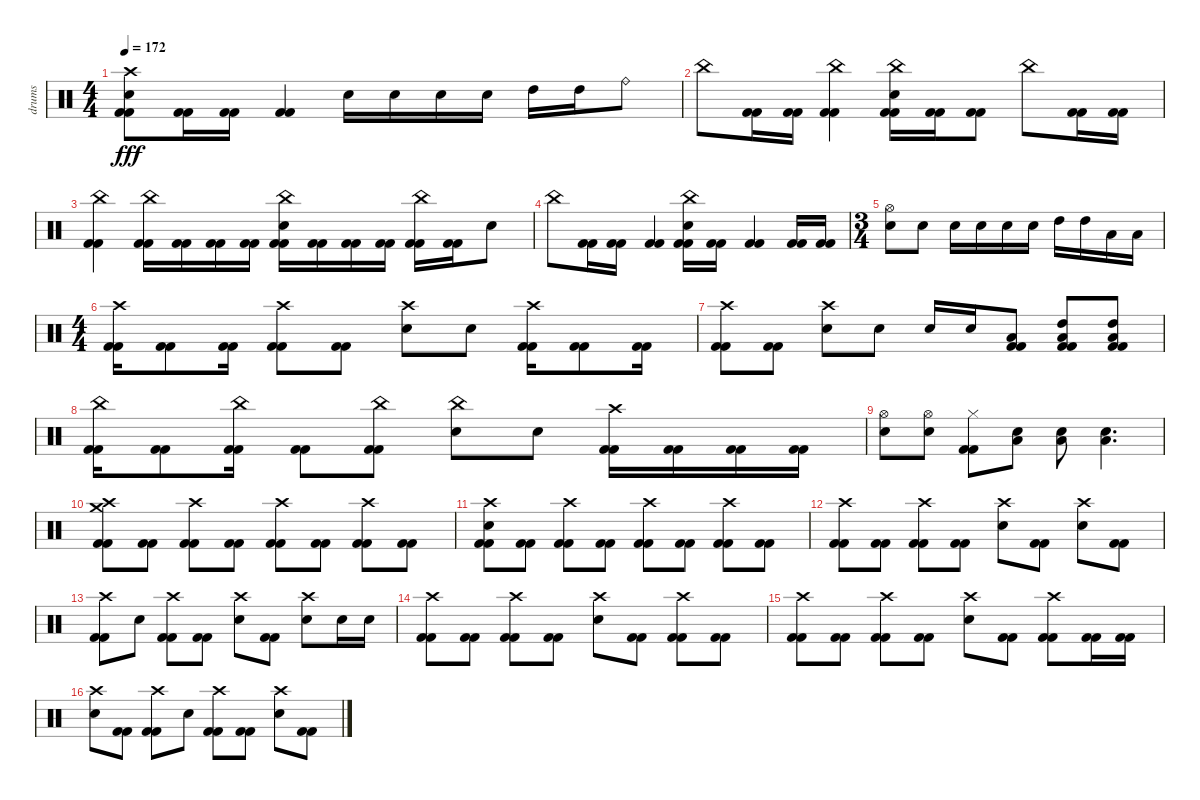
\track ("drums" "drums") {instrument percussion}
\staff {score}
\articulation defaults
\ts (4 4)
\tempo 172
\clef neutral
\ks c
("Kick (hit) 2" "Kick (hit) 2" "Electric Snare (hit)" "Crash high (hit)").8{dy fff} ("Kick (hit) 2" "Kick (hit) 2").16 ("Kick (hit) 2" "Kick (hit) 2").16 ("Kick (hit) 2" "Kick (hit) 2").4 "Electric Snare (hit)".16 "Electric Snare (hit)".16 "Electric Snare (hit)".16 "Electric Snare (hit)".16 "High Tom (hit)".16 "High Tom (hit)".16 "Ride (bell)".8 |
"China (hit)".8 ("Kick (hit) 2" "Kick (hit) 2").16 ("Kick (hit) 2" "Kick (hit) 2").16 ("Kick (hit) 2" "Kick (hit) 2" "China (hit)").4 ("Kick (hit) 2" "Kick (hit) 2" "Electric Snare (hit)" "China (hit)").16 ("Kick (hit) 2" "Kick (hit) 2").16 ("Kick (hit) 2" "Kick (hit) 2").8 "China (hit)".8 ("Kick (hit) 2" "Kick (hit) 2").16 ("Kick (hit) 2" "Kick (hit) 2").16 |
("Kick (hit) 2" "Kick (hit) 2" "China (hit)").4 ("Kick (hit) 2" "Kick (hit) 2" "China (hit)").16 ("Kick (hit) 2" "Kick (hit) 2").16 ("Kick (hit) 2" "Kick (hit) 2").16 ("Kick (hit) 2" "Kick (hit) 2").16 ("Kick (hit) 2" "Kick (hit) 2" "Electric Snare (hit)" "China (hit)").16 ("Kick (hit) 2" "Kick (hit) 2").16 ("Kick (hit) 2" "Kick (hit) 2").16 ("Kick (hit) 2" "Kick (hit) 2").16 ("Kick (hit) 2" "Kick (hit) 2" "China (hit)").16 ("Kick (hit) 2" "Kick (hit) 2").16 "Electric Snare (hit)".8 |
"China (hit)".8 ("Kick (hit) 2" "Kick (hit) 2").16 ("Kick (hit) 2" "Kick (hit) 2").16 ("Kick (hit) 2" "Kick (hit) 2").4 ("Kick (hit) 2" "Kick (hit) 2" "Electric Snare (hit)" "China (hit)").16 ("Kick (hit) 2" "Kick (hit) 2").16 ("Kick (hit) 2" "Kick (hit) 2").4 ("Kick (hit) 2" "Kick (hit) 2").16 ("Kick (hit) 2" "Kick (hit) 2").16 |
\ts (3 4)
("Electric Snare (hit)" "Hi-Hat (open)").8 "Electric Snare (hit)".8 "Electric Snare (hit)".16 "Electric Snare (hit)".16 "Electric Snare (hit)".16 "Electric Snare (hit)".16 "High Tom (hit)".16 "High Tom (hit)".16 "Low Floor Tom (hit)".16 "Low Floor Tom (hit)".16 |
\ts (4 4)
("Kick (hit) 2" "Kick (hit) 2" "Crash high (hit)").16 ("Kick (hit) 2" "Kick (hit) 2").8 ("Kick (hit) 2" "Kick (hit) 2").16 ("Kick (hit) 2" "Kick (hit) 2" "Crash high (hit)").8 ("Kick (hit) 2" "Kick (hit) 2").8 ("Electric Snare (hit)" "Crash high (hit)").8 "Electric Snare (hit)".8 ("Kick (hit) 2" "Kick (hit) 2" "Crash high (hit)").16 ("Kick (hit) 2" "Kick (hit) 2").8 ("Kick (hit) 2" "Kick (hit) 2").16 |
("Kick (hit) 2" "Kick (hit) 2" "Crash high (hit)").8 ("Kick (hit) 2" "Kick (hit) 2").8 ("Electric Snare (hit)" "Crash high (hit)").8 "Electric Snare (hit)".8 "Electric Snare (hit)".16 "Electric Snare (hit)".16 ("Kick (hit) 2" "Kick (hit) 2" "Low Floor Tom (hit)").8 ("Kick (hit) 2" "Kick (hit) 2" "Low Floor Tom (hit)" "High Tom (hit)").8 ("Kick (hit) 2" "Kick (hit) 2" "Low Floor Tom (hit)" "High Tom (hit)").8 |
("Kick (hit) 2" "Kick (hit) 2" "China (hit)").16 ("Kick (hit) 2" "Kick (hit) 2").8 ("Kick (hit) 2" "Kick (hit) 2" "China (hit)").16 ("Kick (hit) 2" "Kick (hit) 2").8 ("Kick (hit) 2" "Kick (hit) 2" "China (hit)").8 ("Electric Snare (hit)" "China (hit)").8 "Electric Snare (hit)".8 ("Kick (hit) 2" "Kick (hit) 2" "Crash high (hit)").16 ("Kick (hit) 2" "Kick (hit) 2").16 ("Kick (hit) 2" "Kick (hit) 2").16 ("Kick (hit) 2" "Kick (hit) 2").16 |
("Electric Snare (hit)" "Hi-Hat (open)").8 ("Electric Snare (hit)" "Hi-Hat (open)").8 ("Kick (hit) 2" "Kick (hit) 2" "Hi-Hat (closed)").8 ("Low Floor Tom (hit)" "Electric Snare (hit)").8 ("Low Floor Tom (hit)" "Electric Snare (hit)").8 ("Low Floor Tom (hit)" "Electric Snare (hit)").4{d} |
("Kick (hit) 2" "Kick (hit) 2" "Crash medium (hit)" "Crash high (hit)").8 ("Kick (hit) 2" "Kick (hit) 2").8 ("Kick (hit) 2" "Kick (hit) 2" "Crash high (hit)").8 ("Kick (hit) 2" "Kick (hit) 2").8 ("Kick (hit) 2" "Kick (hit) 2" "Crash high (hit)").8 ("Kick (hit) 2" "Kick (hit) 2").8 ("Kick (hit) 2" "Kick (hit) 2" "Crash high (hit)").8 ("Kick (hit) 2" "Kick (hit) 2").8 |
("Kick (hit) 2" "Kick (hit) 2" "Electric Snare (hit)" "Crash high (hit)").8 ("Kick (hit) 2" "Kick (hit) 2").8 ("Kick (hit) 2" "Kick (hit) 2" "Crash high (hit)").8 ("Kick (hit) 2" "Kick (hit) 2").8 ("Kick (hit) 2" "Kick (hit) 2" "Crash high (hit)").8 ("Kick (hit) 2" "Kick (hit) 2").8 ("Kick (hit) 2" "Kick (hit) 2" "Crash high (hit)").8 ("Kick (hit) 2" "Kick (hit) 2").8 |
("Kick (hit) 2" "Kick (hit) 2" "Crash high (hit)").8 ("Kick (hit) 2" "Kick (hit) 2").8 ("Kick (hit) 2" "Kick (hit) 2" "Crash high (hit)").8 ("Kick (hit) 2" "Kick (hit) 2").8 ("Electric Snare (hit)" "Crash high (hit)").8 ("Kick (hit) 2" "Kick (hit) 2").8 ("Electric Snare (hit)" "Crash high (hit)").8 ("Kick (hit) 2" "Kick (hit) 2").8 |
("Kick (hit) 2" "Kick (hit) 2" "Crash high (hit)").8 "Electric Snare (hit)".8 ("Kick (hit) 2" "Kick (hit) 2" "Crash high (hit)").8 ("Kick (hit) 2" "Kick (hit) 2").8 ("Electric Snare (hit)" "Crash high (hit)").8 ("Kick (hit) 2" "Kick (hit) 2").8 ("Electric Snare (hit)" "Crash high (hit)").8 "Electric Snare (hit)".16 "Electric Snare (hit)".16 |
("Kick (hit) 2" "Kick (hit) 2" "Crash high (hit)").8 ("Kick (hit) 2" "Kick (hit) 2").8 ("Kick (hit) 2" "Kick (hit) 2" "Crash high (hit)").8 ("Kick (hit) 2" "Kick (hit) 2").8 ("Electric Snare (hit)" "Crash high (hit)").8 ("Kick (hit) 2" "Kick (hit) 2").8 ("Kick (hit) 2" "Kick (hit) 2" "Crash high (hit)").8 ("Kick (hit) 2" "Kick (hit) 2").8 |
("Kick (hit) 2" "Kick (hit) 2" "Crash high (hit)").8 ("Kick (hit) 2" "Kick (hit) 2").8 ("Kick (hit) 2" "Kick (hit) 2" "Crash high (hit)").8 ("Kick (hit) 2" "Kick (hit) 2").8 ("Electric Snare (hit)" "Crash high (hit)").8 ("Kick (hit) 2" "Kick (hit) 2").8 ("Kick (hit) 2" "Kick (hit) 2" "Crash high (hit)").8 ("Kick (hit) 2" "Kick (hit) 2").16 ("Kick (hit) 2" "Kick (hit) 2").16 |
("Electric Snare (hit)" "Crash high (hit)").8 ("Kick (hit) 2" "Kick (hit) 2").8 ("Kick (hit) 2" "Kick (hit) 2" "Crash high (hit)").8 "Electric Snare (hit)".8 ("Kick (hit) 2" "Kick (hit) 2" "Crash high (hit)").8 ("Kick (hit) 2" "Kick (hit) 2").8 ("Electric Snare (hit)" "Crash high (hit)").8 ("Kick (hit) 2" "Kick (hit) 2").8
